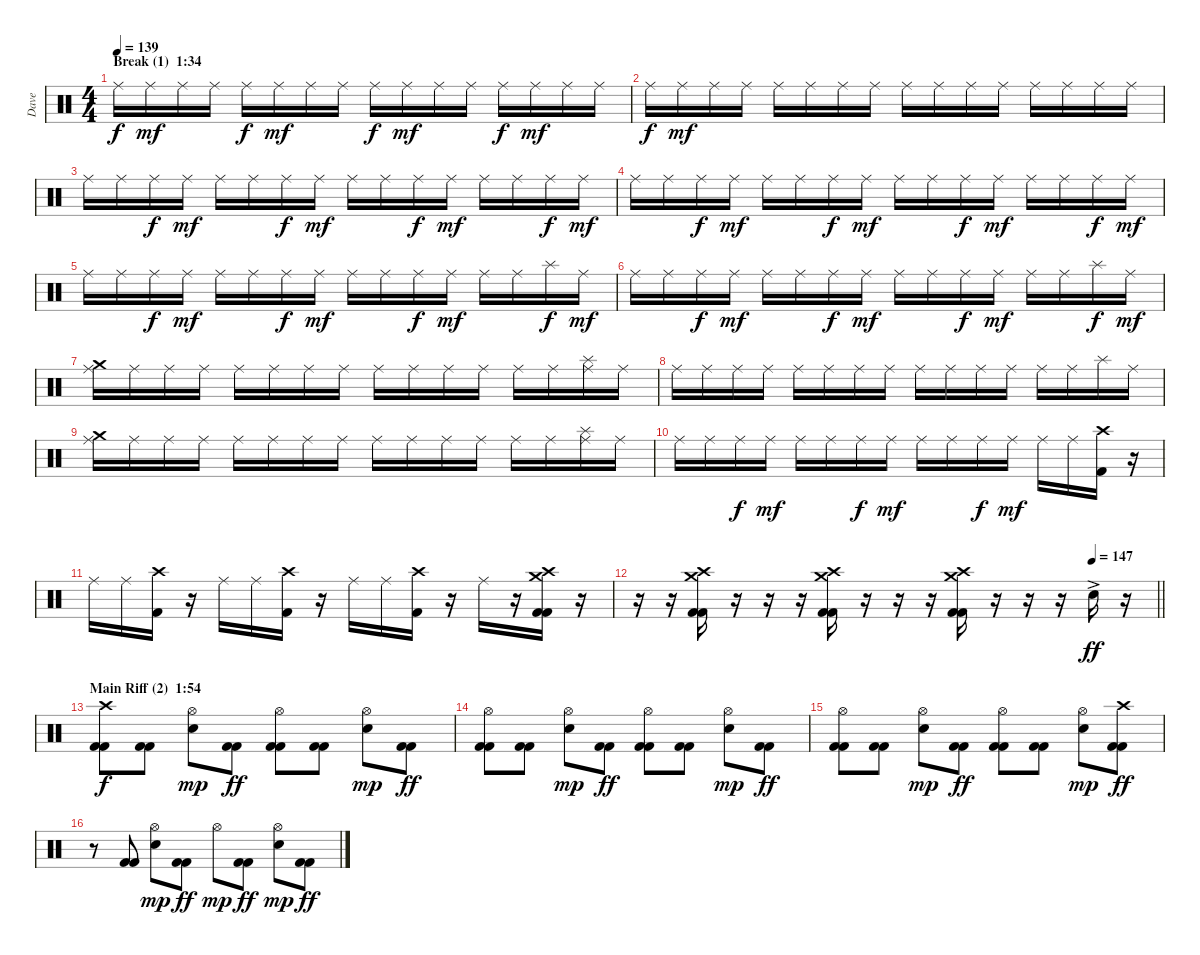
\track ("Dave" "Dave") {instrument percussion}
\staff {score}
\articulation defaults
\ts (4 4)
\section ("" "Break (1)  1:34")
\tempo 139
\clef neutral
\ks c "Ride (middle)".16{dy f volume 16} "Ride (middle)".16{dy mf} "Ride (middle)".16 "Ride (middle)".16 "Ride (middle)".16{dy f} "Ride (middle)".16{dy mf} "Ride (middle)".16 "Ride (middle)".16 "Ride (middle)".16{dy f} "Ride (middle)".16{dy mf} "Ride (middle)".16 "Ride (middle)".16 "Ride (middle)".16{dy f} "Ride (middle)".16{dy mf} "Ride (middle)".16 "Ride (middle)".16
|
"Ride (middle)".16{dy f} "Ride (middle)".16{dy mf} "Ride (middle)".16 "Ride (middle)".16 "Ride (middle)".16 "Ride (middle)".16 "Ride (middle)".16 "Ride (middle)".16 "Ride (middle)".16 "Ride (middle)".16 "Ride (middle)".16 "Ride (middle)".16 "Ride (middle)".16 "Ride (middle)".16 "Ride (middle)".16 "Ride (middle)".16 |
"Ride (middle)".16 "Ride (middle)".16 "Ride (middle)".16{dy f} "Ride (middle)".16{dy mf} "Ride (middle)".16 "Ride (middle)".16 "Ride (middle)".16{dy f} "Ride (middle)".16{dy mf} "Ride (middle)".16 "Ride (middle)".16 "Ride (middle)".16{dy f} "Ride (middle)".16{dy mf} "Ride (middle)".16 "Ride (middle)".16 "Ride (middle)".16{dy f} "Ride (middle)".16{dy mf} |
"Ride (middle)".16 "Ride (middle)".16 "Ride (middle)".16{dy f} "Ride (middle)".16{dy mf} "Ride (middle)".16 "Ride (middle)".16 "Ride (middle)".16{dy f} "Ride (middle)".16{dy mf} "Ride (middle)".16 "Ride (middle)".16 "Ride (middle)".16{dy f} "Ride (middle)".16{dy mf} "Ride (middle)".16 "Ride (middle)".16 "Ride (middle)".16{dy f} "Ride (middle)".16{dy mf} |
"Ride (middle)".16 "Ride (middle)".16 "Ride (middle)".16{dy f} "Ride (middle)".16{dy mf} "Ride (middle)".16 "Ride (middle)".16 "Ride (middle)".16{dy f} "Ride (middle)".16{dy mf} "Ride (middle)".16 "Ride (middle)".16 "Ride (middle)".16{dy f} "Ride (middle)".16{dy mf} "Ride (middle)".16 "Ride (middle)".16 "Splash (hit)".16{dy f} "Ride (middle)".16{dy mf} |
"Ride (middle)".16 "Ride (middle)".16 "Ride (middle)".16{dy f} "Ride (middle)".16{dy mf} "Ride (middle)".16 "Ride (middle)".16 "Ride (middle)".16{dy f} "Ride (middle)".16{dy mf} "Ride (middle)".16 "Ride (middle)".16 "Ride (middle)".16{dy f} "Ride (middle)".16{dy mf} "Ride (middle)".16 "Ride (middle)".16 "Splash (hit)".16{dy f} "Ride (middle)".16{dy mf} |
("Crash medium (hit)" "Ride (middle)").16 "Ride (middle)".16 "Ride (middle)".16 "Ride (middle)".16 "Ride (middle)".16 "Ride (middle)".16 "Ride (middle)".16 "Ride (middle)".16 "Ride (middle)".16 "Ride (middle)".16 "Ride (middle)".16 "Ride (middle)".16 "Ride (middle)".16 "Ride (middle)".16 ("Splash (hit)" "Ride (middle)").16 "Ride (middle)".16 |
"Ride (middle)".16 "Ride (middle)".16 "Ride (middle)".16 "Ride (middle)".16 "Ride (middle)".16 "Ride (middle)".16 "Ride (middle)".16 "Ride (middle)".16 "Ride (middle)".16 "Ride (middle)".16 "Ride (middle)".16 "Ride (middle)".16 "Ride (middle)".16 "Ride (middle)".16 "Splash (hit)".16 "Ride (middle)".16 |
("Crash medium (hit)" "Ride (middle)").16 "Ride (middle)".16 "Ride (middle)".16 "Ride (middle)".16 "Ride (middle)".16 "Ride (middle)".16 "Ride (middle)".16 "Ride (middle)".16 "Ride (middle)".16 "Ride (middle)".16 "Ride (middle)".16 "Ride (middle)".16 "Ride (middle)".16 "Ride (middle)".16 ("Splash (hit)" "Ride (middle)").16 "Ride (middle)".16 |
"Ride (middle)".16 "Ride (middle)".16 "Ride (middle)".16{dy f} "Ride (middle)".16{dy mf} "Ride (middle)".16 "Ride (middle)".16 "Ride (middle)".16{dy f} "Ride (middle)".16{dy mf} "Ride (middle)".16 "Ride (middle)".16 "Ride (middle)".16{dy f} "Ride (middle)".16{dy mf} "Ride (middle)".16 "Ride (middle)".16 ("Crash high (hit)" "Kick (hit) 2").16 r.16 |
"Ride (middle)".16 "Ride (middle)".16 ("Crash high (hit)" "Kick (hit) 2").16 r.16 "Ride (middle)".16 "Ride (middle)".16 ("Crash high (hit)" "Kick (hit) 2").16 r.16 "Ride (middle)".16 "Ride (middle)".16 ("Crash high (hit)" "Kick (hit) 2").16 r.16 "Ride (middle)".16 r.16 ("Crash medium (hit)" "Crash high (hit)" "Kick (hit) 2" "Kick (hit) 2").16 r.16 |
\tempo (147 0.875)
\barLineRight lightlight
r.16 r.16 ("Crash medium (hit)" "Crash high (hit)" "Kick (hit) 2" "Kick (hit) 2").16 r.16 r.16 r.16 ("Crash medium (hit)" "Crash high (hit)" "Kick (hit) 2" "Kick (hit) 2").16 r.16 r.16 r.16 ("Crash medium (hit)" "Crash high (hit)" "Kick (hit) 2" "Kick (hit) 2").16 r.16 r.16 r.16 "Electric Snare (hit)"{ac}.16{dy ff} r.16 |
\section ("" "Main Riff (2)  1:54")
("Crash high (hit)" "Kick (hit) 2" "Kick (hit) 2").8{dy f volume 16} ("Kick (hit) 2" "Kick (hit) 2").8 ("Hi-Hat (open)" "Electric Snare (hit)").8{dy mp} ("Kick (hit) 2" "Kick (hit) 2").8{dy ff} ("Hi-Hat (open)" "Kick (hit) 2" "Kick (hit) 2").8 ("Kick (hit) 2" "Kick (hit) 2").8 ("Hi-Hat (open)" "Electric Snare (hit)").8{dy mp} ("Kick (hit) 2" "Kick (hit) 2").8{dy ff} |
("Hi-Hat (open)" "Kick (hit) 2" "Kick (hit) 2").8 ("Kick (hit) 2" "Kick (hit) 2").8 ("Hi-Hat (open)" "Electric Snare (hit)").8{dy mp} ("Kick (hit) 2" "Kick (hit) 2").8{dy ff} ("Hi-Hat (open)" "Kick (hit) 2" "Kick (hit) 2").8 ("Kick (hit) 2" "Kick (hit) 2").8 ("Hi-Hat (open)" "Electric Snare (hit)").8{dy mp} ("Kick (hit) 2" "Kick (hit) 2").8{dy ff} |
("Hi-Hat (open)" "Kick (hit) 2" "Kick (hit) 2").8 ("Kick (hit) 2" "Kick (hit) 2").8 ("Hi-Hat (open)" "Electric Snare (hit)").8{dy mp} ("Kick (hit) 2" "Kick (hit) 2").8{dy ff} ("Hi-Hat (open)" "Kick (hit) 2" "Kick (hit) 2").8 ("Kick (hit) 2" "Kick (hit) 2").8 ("Hi-Hat (open)" "Electric Snare (hit)").8{dy mp} ("Crash high (hit)" "Kick (hit) 2" "Kick (hit) 2").8{dy ff} |
r.8 ("Kick (hit) 2" "Kick (hit) 2").8 ("Hi-Hat (open)" "Electric Snare (hit)").8{dy mp} ("Kick (hit) 2" "Kick (hit) 2").8{dy ff} "Hi-Hat (open)".8{dy mp} ("Kick (hit) 2" "Kick (hit) 2").8{dy ff} ("Hi-Hat (open)" "Electric Snare (hit)").8{dy mp} ("Kick (hit) 2" "Kick (hit) 2").8{dy ff}
